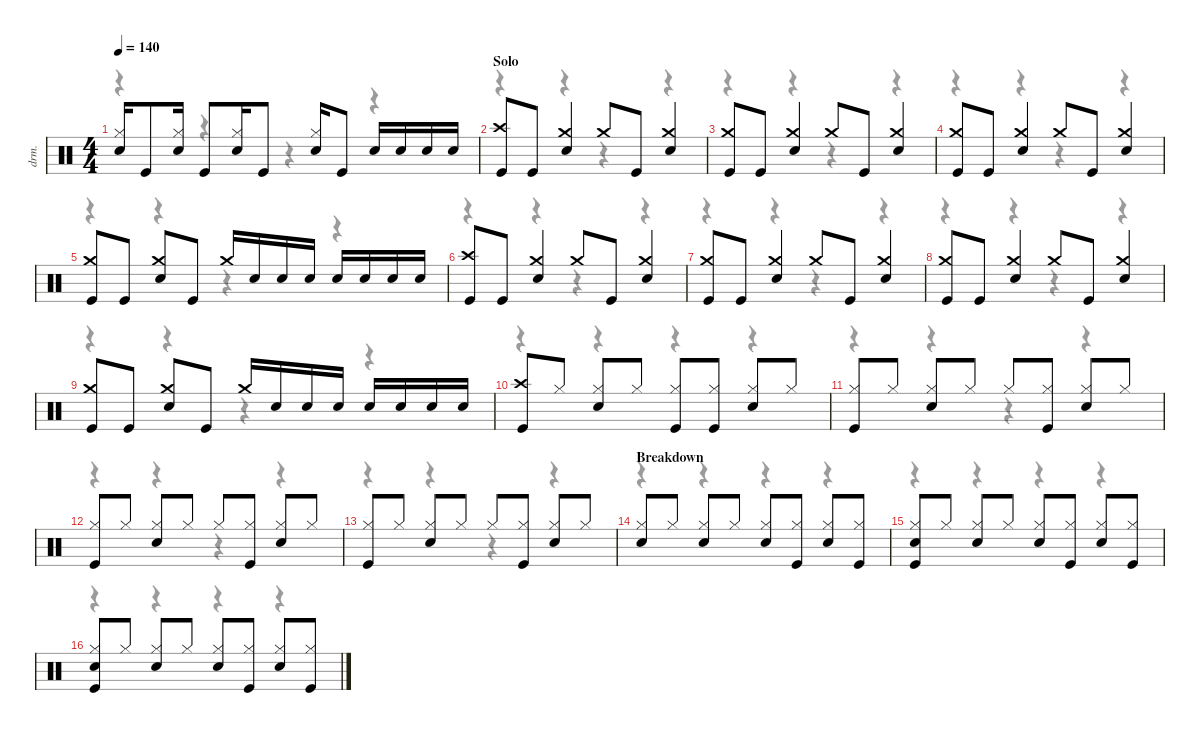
\defaultSystemsLayout 4
\hideDynamics
\bracketExtendMode nobrackets
\otherSystemsTrackNameOrientation horizontal
\track ("Alex Van Halen (Drums)" "drm.") {instrument percussion}
\staff {score}
\articulation defaults
\voice
\ts (4 4)
\tempo 140
\clef neutral
\ks c
("Hi-Hat (closed)" "Snare (hit) 2").16{dy f beam Up} "Kick (hit)".8{beam Up} ("Hi-Hat (closed)" "Snare (hit) 2").16{beam Up} "Kick (hit)".8{beam Up} ("Hi-Hat (closed)" "Snare (hit) 2").16{beam Up} "Kick (hit)".8{beam Up} ("Hi-Hat (closed)" "Snare (hit) 2").16{beam Up} "Kick (hit)".8{beam Up} "Snare (hit) 2".16{beam Up} "Snare (hit) 2".16{beam Up} "Snare (hit) 2".16{beam Up} "Snare (hit) 2".16{beam Up} |
\section ("" "Solo")
("Crash high (hit)" "Kick (hit)").8{beam Up} "Kick (hit)".8{beam Up} ("Crash medium (hit)" "Snare (hit) 2").4{dy mf beam Up} "Crash medium (hit)".8{beam Up} "Kick (hit)".8{dy f beam Up} ("Crash medium (hit)" "Snare (hit) 2").4{dy mf beam Up} |
("Crash medium (hit)" "Kick (hit)").8{beam Up} "Kick (hit)".8{dy f beam Up} ("Crash medium (hit)" "Snare (hit) 2").4{dy mf beam Up} "Crash medium (hit)".8{beam Up} "Kick (hit)".8{dy f beam Up} ("Crash medium (hit)" "Snare (hit) 2").4{dy mf beam Up} |
("Crash medium (hit)" "Kick (hit)").8{beam Up} "Kick (hit)".8{dy f beam Up} ("Crash medium (hit)" "Snare (hit) 2").4{dy mf beam Up} "Crash medium (hit)".8{beam Up} "Kick (hit)".8{dy f beam Up} ("Crash medium (hit)" "Snare (hit) 2").4{dy mf beam Up} |
("Crash medium (hit)" "Kick (hit)").8{beam Up} "Kick (hit)".8{dy f beam Up} ("Crash medium (hit)" "Snare (hit) 2").8{dy mf beam Up} "Kick (hit)".8{dy f beam Up} "Crash medium (hit)".16{dy mf beam Up} "Snare (hit) 2".16{dy f beam Up} "Snare (hit) 2".16{beam Up} "Snare (hit) 2".16{beam Up} "Snare (hit) 2".16{beam Up} "Snare (hit) 2".16{beam Up} "Snare (hit) 2".16{beam Up} "Snare (hit) 2".16{beam Up} |
("Crash high (hit)" "Kick (hit)").8{beam Up} "Kick (hit)".8{beam Up} ("Crash medium (hit)" "Snare (hit) 2").4{dy mf beam Up} "Crash medium (hit)".8{beam Up} "Kick (hit)".8{dy f beam Up} ("Crash medium (hit)" "Snare (hit) 2").4{dy mf beam Up} |
("Crash medium (hit)" "Kick (hit)").8{beam Up} "Kick (hit)".8{dy f beam Up} ("Crash medium (hit)" "Snare (hit) 2").4{dy mf beam Up} "Crash medium (hit)".8{beam Up} "Kick (hit)".8{dy f beam Up} ("Crash medium (hit)" "Snare (hit) 2").4{dy mf beam Up} |
("Crash medium (hit)" "Kick (hit)").8{beam Up} "Kick (hit)".8{dy f beam Up} ("Crash medium (hit)" "Snare (hit) 2").4{dy mf beam Up} "Crash medium (hit)".8{beam Up} "Kick (hit)".8{dy f beam Up} ("Crash medium (hit)" "Snare (hit) 2").4{dy mf beam Up} |
("Crash medium (hit)" "Kick (hit)").8{beam Up} "Kick (hit)".8{dy f beam Up} ("Crash medium (hit)" "Snare (hit) 2").8{dy mf beam Up} "Kick (hit)".8{dy f beam Up} "Crash medium (hit)".16{dy mf beam Up} "Snare (hit) 2".16{dy f beam Up} "Snare (hit) 2".16{beam Up} "Snare (hit) 2".16{beam Up} "Snare (hit) 2".16{beam Up} "Snare (hit) 2".16{beam Up} "Snare (hit) 2".16{beam Up} "Snare (hit) 2".16{beam Up} |
("Crash high (hit)" "Kick (hit)").8{beam Up} "Hi-Hat (closed)".8{beam Up} ("Hi-Hat (closed)" "Snare (hit) 2").8{beam Up} "Hi-Hat (closed)".8{beam Up} ("Hi-Hat (closed)" "Kick (hit)").8{beam Up} ("Hi-Hat (closed)" "Kick (hit)").8{beam Up} ("Hi-Hat (closed)" "Snare (hit) 2").8{beam Up} "Hi-Hat (closed)".8{beam Up} |
("Hi-Hat (closed)" "Kick (hit)").8{beam Up} "Hi-Hat (closed)".8{beam Up} ("Hi-Hat (closed)" "Snare (hit) 2").8{beam Up} "Hi-Hat (closed)".8{beam Up} "Hi-Hat (closed)".8{beam Up} ("Hi-Hat (closed)" "Kick (hit)").8{beam Up} ("Hi-Hat (closed)" "Snare (hit) 2").8{beam Up} "Hi-Hat (closed)".8{beam Up} |
("Hi-Hat (closed)" "Kick (hit)").8{beam Up} "Hi-Hat (closed)".8{beam Up} ("Hi-Hat (closed)" "Snare (hit) 2").8{beam Up} "Hi-Hat (closed)".8{beam Up} "Hi-Hat (closed)".8{beam Up} ("Hi-Hat (closed)" "Kick (hit)").8{beam Up} ("Hi-Hat (closed)" "Snare (hit) 2").8{beam Up} "Hi-Hat (closed)".8{beam Up} |
("Hi-Hat (closed)" "Kick (hit)").8{beam Up} "Hi-Hat (closed)".8{beam Up} ("Hi-Hat (closed)" "Snare (hit) 2").8{beam Up} "Hi-Hat (closed)".8{beam Up} "Hi-Hat (closed)".8{beam Up} ("Hi-Hat (closed)" "Kick (hit)").8{beam Up} ("Hi-Hat (closed)" "Snare (hit) 2").8{beam Up} "Hi-Hat (closed)".8{beam Up} |
\section ("" "Breakdown")
("Hi-Hat (closed)" "Snare (hit) 2").8{beam Up} "Hi-Hat (closed)".8{beam Up} ("Hi-Hat (closed)" "Snare (hit) 2").8{beam Up} "Hi-Hat (closed)".8{beam Up} ("Hi-Hat (closed)" "Snare (hit) 2").8{beam Up} ("Hi-Hat (closed)" "Kick (hit)").8{beam Up} ("Hi-Hat (closed)" "Snare (hit) 2").8{beam Up} ("Hi-Hat (closed)" "Kick (hit)").8{beam Up} |
("Hi-Hat (closed)" "Snare (hit) 2" "Kick (hit)").8{beam Up} "Hi-Hat (closed)".8{beam Up} ("Hi-Hat (closed)" "Snare (hit) 2").8{beam Up} "Hi-Hat (closed)".8{beam Up} ("Hi-Hat (closed)" "Snare (hit) 2").8{beam Up} ("Hi-Hat (closed)" "Kick (hit)").8{beam Up} ("Hi-Hat (closed)" "Snare (hit) 2").8{beam Up} ("Hi-Hat (closed)" "Kick (hit)").8{beam Up} |
("Hi-Hat (closed)" "Snare (hit) 2" "Kick (hit)").8{beam Up} "Hi-Hat (closed)".8{beam Up} ("Hi-Hat (closed)" "Snare (hit) 2").8{beam Up} "Hi-Hat (closed)".8{beam Up} ("Hi-Hat (closed)" "Snare (hit) 2").8{beam Up} ("Hi-Hat (closed)" "Kick (hit)").8{beam Up} ("Hi-Hat (closed)" "Snare (hit) 2").8{beam Up} ("Hi-Hat (closed)" "Kick (hit)").8{beam Up}
\voice
\clef neutral
\ottava regular
\simile none
\ks c
r.4{dy mf beam Down} r.4{beam Down} r.4{beam Down} r.4{beam Down} |
r.4{beam Down} r.4{beam Down} r.4{beam Down} r.4{beam Down} |
r.4{beam Down} r.4{beam Down} r.4{beam Down} r.4{beam Down} |
r.4{beam Down} r.4{beam Down} r.4{beam Down} r.4{beam Down} |
r.4{beam Down} r.4{beam Down} r.4{beam Down} r.4{beam Down} |
r.4{beam Down} r.4{beam Down} r.4{beam Down} r.4{beam Down} |
r.4{beam Down} r.4{beam Down} r.4{beam Down} r.4{beam Down} |
r.4{beam Down} r.4{beam Down} r.4{beam Down} r.4{beam Down} |
r.4{beam Down} r.4{beam Down} r.4{beam Down} r.4{beam Down} |
r.4{beam Down} r.4{beam Down} r.4{beam Down} r.4{beam Down} |
r.4{beam Down} r.4{beam Down} r.4{beam Down} r.4{beam Down} |
r.4{beam Down} r.4{beam Down} r.4{beam Down} r.4{beam Down} |
r.4{beam Down} r.4{beam Down} r.4{beam Down} r.4{beam Down} |
r.4{beam Down} r.4{beam Down} r.4{beam Down} r.4{beam Down} |
r.4{beam Down} r.4{beam Down} r.4{beam Down} r.4{beam Down} |
r.4{beam Down} r.4{beam Down} r.4{beam Down} r.4{beam Down}
